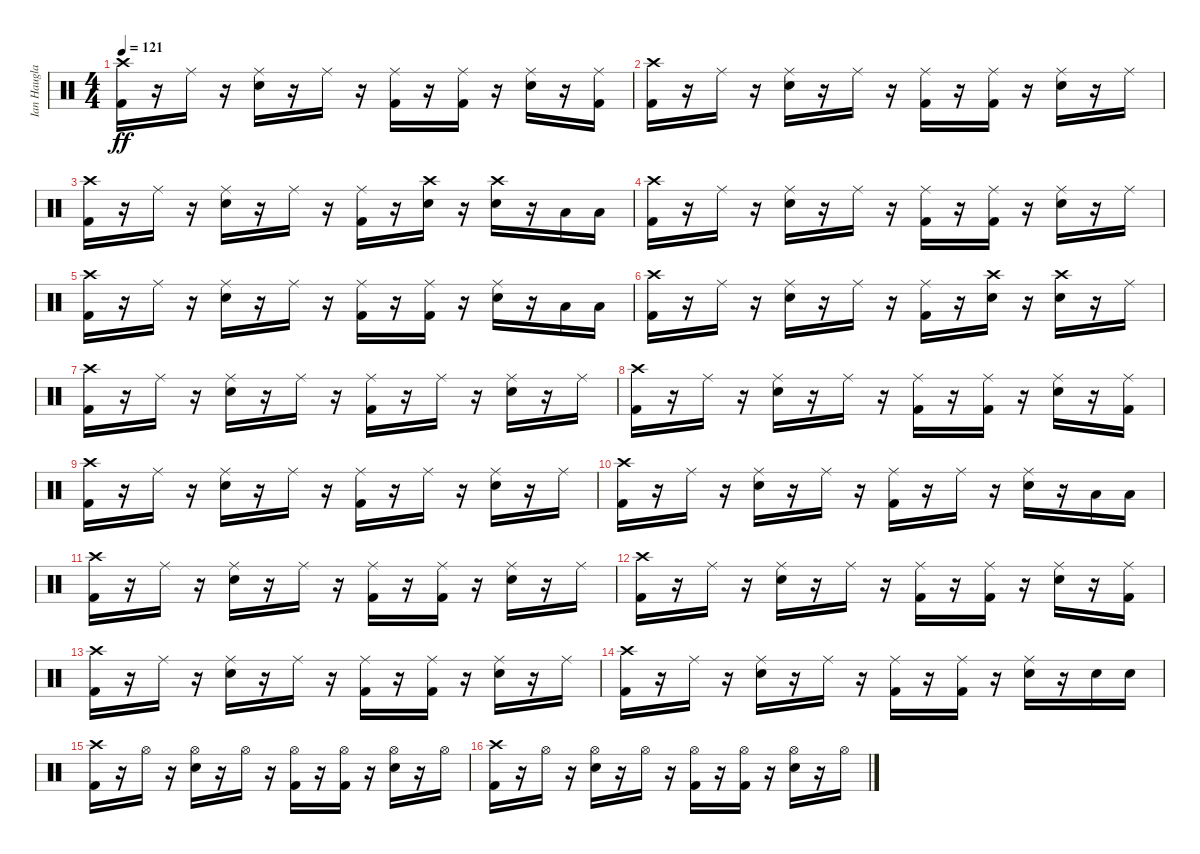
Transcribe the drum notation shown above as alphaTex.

\track ("Ian Haugland" "Ian Haugla") {instrument percussion}
\staff {score}
\articulation defaults
\ts (4 4)
\tempo 121
\clef neutral
\ks c
("Crash high (hit)" "Kick (hit) 2").16{dy ff} r.16 "Ride (middle)".16 r.16 ("Ride (middle)" "Electric Snare (hit)").16 r.16 "Ride (middle)".16 r.16 ("Ride (middle)" "Kick (hit) 2").16 r.16 ("Ride (middle)" "Kick (hit) 2").16 r.16 ("Ride (middle)" "Electric Snare (hit)").16 r.16 ("Ride (middle)" "Kick (hit) 2").16 |
("Crash high (hit)" "Kick (hit) 2").16 r.16 "Ride (middle)".16 r.16 ("Ride (middle)" "Electric Snare (hit)").16 r.16 "Ride (middle)".16 r.16 ("Ride (middle)" "Kick (hit) 2").16 r.16 ("Ride (middle)" "Kick (hit) 2").16 r.16 ("Ride (middle)" "Electric Snare (hit)").16 r.16 "Ride (middle)".16 |
("Crash high (hit)" "Kick (hit) 2").16 r.16 "Ride (middle)".16 r.16 ("Ride (middle)" "Electric Snare (hit)").16 r.16 "Ride (middle)".16 r.16 ("Ride (middle)" "Kick (hit) 2").16 r.16 ("Crash high (hit)" "Electric Snare (hit)").16 r.16 ("Crash high (hit)" "Electric Snare (hit)").16 r.16 "Low Floor Tom (hit)".16 "Low Floor Tom (hit)".16 |
("Crash high (hit)" "Kick (hit) 2").16 r.16 "Ride (middle)".16 r.16 ("Ride (middle)" "Electric Snare (hit)").16 r.16 "Ride (middle)".16 r.16 ("Ride (middle)" "Kick (hit) 2").16 r.16 ("Ride (middle)" "Kick (hit) 2").16 r.16 ("Ride (middle)" "Electric Snare (hit)").16 r.16 "Ride (middle)".16 |
("Crash high (hit)" "Kick (hit) 2").16 r.16 "Ride (middle)".16 r.16 ("Ride (middle)" "Electric Snare (hit)").16 r.16 "Ride (middle)".16 r.16 ("Ride (middle)" "Kick (hit) 2").16 r.16 ("Ride (middle)" "Kick (hit) 2").16 r.16 ("Ride (middle)" "Electric Snare (hit)").16 r.16 "Low Floor Tom (hit)".16 "Low Floor Tom (hit)".16 |
("Crash high (hit)" "Kick (hit) 2").16 r.16 "Ride (middle)".16 r.16 ("Ride (middle)" "Electric Snare (hit)").16 r.16 "Ride (middle)".16 r.16 ("Ride (middle)" "Kick (hit) 2").16 r.16 ("Crash high (hit)" "Electric Snare (hit)").16 r.16 ("Crash high (hit)" "Electric Snare (hit)").16 r.16 "Ride (middle)".16 |
("Crash high (hit)" "Kick (hit) 2").16 r.16 "Ride (middle)".16 r.16 ("Ride (middle)" "Electric Snare (hit)").16 r.16 "Ride (middle)".16 r.16 ("Ride (middle)" "Kick (hit) 2").16 r.16 "Ride (middle)".16 r.16 ("Ride (middle)" "Electric Snare (hit)").16 r.16 "Ride (middle)".16 |
("Crash high (hit)" "Kick (hit) 2").16 r.16 "Ride (middle)".16 r.16 ("Ride (middle)" "Electric Snare (hit)").16 r.16 "Ride (middle)".16 r.16 ("Ride (middle)" "Kick (hit) 2").16 r.16 ("Ride (middle)" "Kick (hit) 2").16 r.16 ("Ride (middle)" "Electric Snare (hit)").16 r.16 ("Ride (middle)" "Kick (hit) 2").16 |
("Crash high (hit)" "Kick (hit) 2").16 r.16 "Ride (middle)".16 r.16 ("Ride (middle)" "Electric Snare (hit)").16 r.16 "Ride (middle)".16 r.16 ("Ride (middle)" "Kick (hit) 2").16 r.16 "Ride (middle)".16 r.16 ("Ride (middle)" "Electric Snare (hit)").16 r.16 "Ride (middle)".16 |
("Crash high (hit)" "Kick (hit) 2").16 r.16 "Ride (middle)".16 r.16 ("Ride (middle)" "Electric Snare (hit)").16 r.16 "Ride (middle)".16 r.16 ("Ride (middle)" "Kick (hit) 2").16 r.16 "Ride (middle)".16 r.16 ("Ride (middle)" "Electric Snare (hit)").16 r.16 "Low Floor Tom (hit)".16 "Low Floor Tom (hit)".16 |
("Crash high (hit)" "Kick (hit) 2").16 r.16 "Ride (middle)".16 r.16 ("Ride (middle)" "Electric Snare (hit)").16 r.16 "Ride (middle)".16 r.16 ("Ride (middle)" "Kick (hit) 2").16 r.16 ("Ride (middle)" "Kick (hit) 2").16 r.16 ("Ride (middle)" "Electric Snare (hit)").16 r.16 "Ride (middle)".16 |
("Crash high (hit)" "Kick (hit) 2").16 r.16 "Ride (middle)".16 r.16 ("Ride (middle)" "Electric Snare (hit)").16 r.16 "Ride (middle)".16 r.16 ("Ride (middle)" "Kick (hit) 2").16 r.16 ("Ride (middle)" "Kick (hit) 2").16 r.16 ("Ride (middle)" "Electric Snare (hit)").16 r.16 ("Ride (middle)" "Kick (hit) 2").16 |
("Crash high (hit)" "Kick (hit) 2").16 r.16 "Ride (middle)".16 r.16 ("Ride (middle)" "Electric Snare (hit)").16 r.16 "Ride (middle)".16 r.16 ("Ride (middle)" "Kick (hit) 2").16 r.16 ("Ride (middle)" "Kick (hit) 2").16 r.16 ("Ride (middle)" "Electric Snare (hit)").16 r.16 "Ride (middle)".16 |
("Crash high (hit)" "Kick (hit) 2").16 r.16 "Ride (middle)".16 r.16 ("Ride (middle)" "Electric Snare (hit)").16 r.16 "Ride (middle)".16 r.16 ("Ride (middle)" "Kick (hit) 2").16 r.16 ("Ride (middle)" "Kick (hit) 2").16 r.16 ("Ride (middle)" "Electric Snare (hit)").16 r.16 "Electric Snare (hit)".16 "Electric Snare (hit)".16 |
("Crash high (hit)" "Kick (hit) 2").16 r.16 "Hi-Hat (open)".16 r.16 ("Hi-Hat (open)" "Electric Snare (hit)").16 r.16 "Hi-Hat (open)".16 r.16 ("Hi-Hat (open)" "Kick (hit) 2").16 r.16 ("Hi-Hat (open)" "Kick (hit) 2").16 r.16 ("Hi-Hat (open)" "Electric Snare (hit)").16 r.16 "Hi-Hat (open)".16 |
("Crash high (hit)" "Kick (hit) 2").16 r.16 "Hi-Hat (open)".16 r.16 ("Hi-Hat (open)" "Electric Snare (hit)").16 r.16 "Hi-Hat (open)".16 r.16 ("Hi-Hat (open)" "Kick (hit) 2").16 r.16 ("Hi-Hat (open)" "Kick (hit) 2").16 r.16 ("Hi-Hat (open)" "Electric Snare (hit)").16 r.16 "Hi-Hat (open)".16
